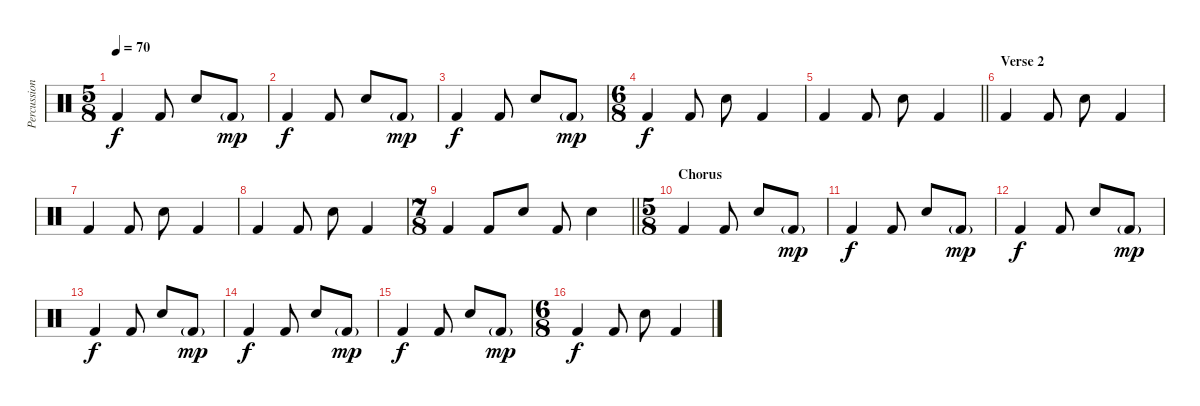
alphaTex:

\track ("Percussion" "Percussion") {instrument percussion}
\staff {score}
\articulation defaults
\ts (5 8)
\tempo 70
\clef neutral
\ks c "Kick (hit) 2".4{dy f} "Kick (hit) 2".8 "Snare (hit) 2".8 "Kick (hit) 2"{g}.8{dy mp}
|
"Kick (hit) 2".4{dy f} "Kick (hit) 2".8 "Snare (hit) 2".8 "Kick (hit) 2"{g}.8{dy mp} |
"Kick (hit) 2".4{dy f} "Kick (hit) 2".8 "Snare (hit) 2".8 "Kick (hit) 2"{g}.8{dy mp} |
\ts (6 8)
"Kick (hit) 2".4{dy f} "Kick (hit) 2".8 "Snare (hit) 2".8 "Kick (hit) 2".4 |
\barLineRight lightlight "Kick (hit) 2".4 "Kick (hit) 2".8 "Snare (hit) 2".8 "Kick (hit) 2".4
|
\section ("" "Verse 2")
"Kick (hit) 2".4 "Kick (hit) 2".8 "Snare (hit) 2".8 "Kick (hit) 2".4 |
"Kick (hit) 2".4 "Kick (hit) 2".8 "Snare (hit) 2".8 "Kick (hit) 2".4 |
"Kick (hit) 2".4 "Kick (hit) 2".8 "Snare (hit) 2".8 "Kick (hit) 2".4 |
\ts (7 8)
\barLineRight lightlight "Kick (hit) 2".4 "Kick (hit) 2".8 "Snare (hit) 2".8 "Kick (hit) 2".8 "Snare (hit) 2".4
|
\ts (5 8)
\section ("" "Chorus")
"Kick (hit) 2".4 "Kick (hit) 2".8 "Snare (hit) 2".8 "Kick (hit) 2"{g}.8{dy mp} |
"Kick (hit) 2".4{dy f} "Kick (hit) 2".8 "Snare (hit) 2".8 "Kick (hit) 2"{g}.8{dy mp} |
"Kick (hit) 2".4{dy f} "Kick (hit) 2".8 "Snare (hit) 2".8 "Kick (hit) 2"{g}.8{dy mp} |
"Kick (hit) 2".4{dy f} "Kick (hit) 2".8 "Snare (hit) 2".8 "Kick (hit) 2"{g}.8{dy mp} |
"Kick (hit) 2".4{dy f} "Kick (hit) 2".8 "Snare (hit) 2".8 "Kick (hit) 2"{g}.8{dy mp} |
"Kick (hit) 2".4{dy f} "Kick (hit) 2".8 "Snare (hit) 2".8 "Kick (hit) 2"{g}.8{dy mp} |
\ts (6 8)
"Kick (hit) 2".4{dy f} "Kick (hit) 2".8 "Snare (hit) 2".8 "Kick (hit) 2".4
